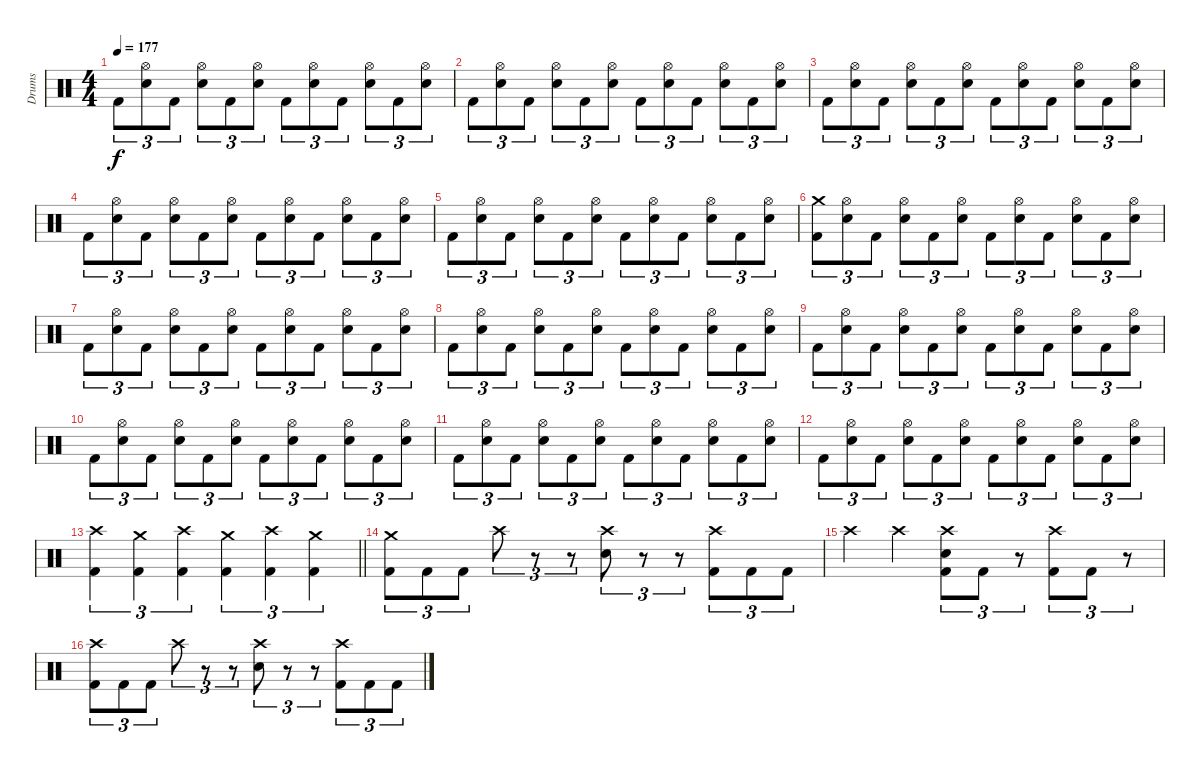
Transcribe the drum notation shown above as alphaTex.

\track ("Drums" "Drums") {instrument percussion}
\staff {score}
\articulation defaults
\ts (4 4)
\tempo 177
\clef neutral
\ks c "Kick (hit) 2".8{tu (3 2) dy f}
("Hi-Hat (open)" "Electric Snare (hit)").8{tu (3 2)} "Kick (hit) 2".8{tu (3 2)} ("Hi-Hat (open)" "Electric Snare (hit)").8{tu (3 2)} "Kick (hit) 2".8{tu (3 2)} ("Hi-Hat (open)" "Electric Snare (hit)").8{tu (3 2)} "Kick (hit) 2".8{tu (3 2)} ("Hi-Hat (open)" "Electric Snare (hit)").8{tu (3 2)} "Kick (hit) 2".8{tu (3 2)} ("Hi-Hat (open)" "Electric Snare (hit)").8{tu (3 2)} "Kick (hit) 2".8{tu (3 2)} ("Hi-Hat (open)" "Electric Snare (hit)").8{tu (3 2)} |
"Kick (hit) 2".8{tu (3 2)} ("Hi-Hat (open)" "Electric Snare (hit)").8{tu (3 2)} "Kick (hit) 2".8{tu (3 2)} ("Hi-Hat (open)" "Electric Snare (hit)").8{tu (3 2)} "Kick (hit) 2".8{tu (3 2)} ("Hi-Hat (open)" "Electric Snare (hit)").8{tu (3 2)} "Kick (hit) 2".8{tu (3 2)} ("Hi-Hat (open)" "Electric Snare (hit)").8{tu (3 2)} "Kick (hit) 2".8{tu (3 2)} ("Hi-Hat (open)" "Electric Snare (hit)").8{tu (3 2)} "Kick (hit) 2".8{tu (3 2)} ("Hi-Hat (open)" "Electric Snare (hit)").8{tu (3 2)} |
"Kick (hit) 2".8{tu (3 2)} ("Hi-Hat (open)" "Electric Snare (hit)").8{tu (3 2)} "Kick (hit) 2".8{tu (3 2)} ("Hi-Hat (open)" "Electric Snare (hit)").8{tu (3 2)} "Kick (hit) 2".8{tu (3 2)} ("Hi-Hat (open)" "Electric Snare (hit)").8{tu (3 2)} "Kick (hit) 2".8{tu (3 2)} ("Hi-Hat (open)" "Electric Snare (hit)").8{tu (3 2)} "Kick (hit) 2".8{tu (3 2)} ("Hi-Hat (open)" "Electric Snare (hit)").8{tu (3 2)} "Kick (hit) 2".8{tu (3 2)} ("Hi-Hat (open)" "Electric Snare (hit)").8{tu (3 2)} |
"Kick (hit) 2".8{tu (3 2)} ("Hi-Hat (open)" "Electric Snare (hit)").8{tu (3 2)} "Kick (hit) 2".8{tu (3 2)} ("Hi-Hat (open)" "Electric Snare (hit)").8{tu (3 2)} "Kick (hit) 2".8{tu (3 2)} ("Hi-Hat (open)" "Electric Snare (hit)").8{tu (3 2)} "Kick (hit) 2".8{tu (3 2)} ("Hi-Hat (open)" "Electric Snare (hit)").8{tu (3 2)} "Kick (hit) 2".8{tu (3 2)} ("Hi-Hat (open)" "Electric Snare (hit)").8{tu (3 2)} "Kick (hit) 2".8{tu (3 2)} ("Hi-Hat (open)" "Electric Snare (hit)").8{tu (3 2)} |
"Kick (hit) 2".8{tu (3 2)} ("Hi-Hat (open)" "Electric Snare (hit)").8{tu (3 2)} "Kick (hit) 2".8{tu (3 2)} ("Hi-Hat (open)" "Electric Snare (hit)").8{tu (3 2)} "Kick (hit) 2".8{tu (3 2)} ("Hi-Hat (open)" "Electric Snare (hit)").8{tu (3 2)} "Kick (hit) 2".8{tu (3 2)} ("Hi-Hat (open)" "Electric Snare (hit)").8{tu (3 2)} "Kick (hit) 2".8{tu (3 2)} ("Hi-Hat (open)" "Electric Snare (hit)").8{tu (3 2)} "Kick (hit) 2".8{tu (3 2)} ("Hi-Hat (open)" "Electric Snare (hit)").8{tu (3 2)} |
("Crash medium (hit)" "Kick (hit) 2").8{tu (3 2)} ("Hi-Hat (open)" "Electric Snare (hit)").8{tu (3 2)} "Kick (hit) 2".8{tu (3 2)} ("Hi-Hat (open)" "Electric Snare (hit)").8{tu (3 2)} "Kick (hit) 2".8{tu (3 2)} ("Hi-Hat (open)" "Electric Snare (hit)").8{tu (3 2)} "Kick (hit) 2".8{tu (3 2)} ("Hi-Hat (open)" "Electric Snare (hit)").8{tu (3 2)} "Kick (hit) 2".8{tu (3 2)} ("Hi-Hat (open)" "Electric Snare (hit)").8{tu (3 2)} "Kick (hit) 2".8{tu (3 2)} ("Hi-Hat (open)" "Electric Snare (hit)").8{tu (3 2)} |
"Kick (hit) 2".8{tu (3 2)} ("Hi-Hat (open)" "Electric Snare (hit)").8{tu (3 2)} "Kick (hit) 2".8{tu (3 2)} ("Hi-Hat (open)" "Electric Snare (hit)").8{tu (3 2)} "Kick (hit) 2".8{tu (3 2)} ("Hi-Hat (open)" "Electric Snare (hit)").8{tu (3 2)} "Kick (hit) 2".8{tu (3 2)} ("Hi-Hat (open)" "Electric Snare (hit)").8{tu (3 2)} "Kick (hit) 2".8{tu (3 2)} ("Hi-Hat (open)" "Electric Snare (hit)").8{tu (3 2)} "Kick (hit) 2".8{tu (3 2)} ("Hi-Hat (open)" "Electric Snare (hit)").8{tu (3 2)} |
"Kick (hit) 2".8{tu (3 2)} ("Hi-Hat (open)" "Electric Snare (hit)").8{tu (3 2)} "Kick (hit) 2".8{tu (3 2)} ("Hi-Hat (open)" "Electric Snare (hit)").8{tu (3 2)} "Kick (hit) 2".8{tu (3 2)} ("Hi-Hat (open)" "Electric Snare (hit)").8{tu (3 2)} "Kick (hit) 2".8{tu (3 2)} ("Hi-Hat (open)" "Electric Snare (hit)").8{tu (3 2)} "Kick (hit) 2".8{tu (3 2)} ("Hi-Hat (open)" "Electric Snare (hit)").8{tu (3 2)} "Kick (hit) 2".8{tu (3 2)} ("Hi-Hat (open)" "Electric Snare (hit)").8{tu (3 2)} |
"Kick (hit) 2".8{tu (3 2)} ("Hi-Hat (open)" "Electric Snare (hit)").8{tu (3 2)} "Kick (hit) 2".8{tu (3 2)} ("Hi-Hat (open)" "Electric Snare (hit)").8{tu (3 2)} "Kick (hit) 2".8{tu (3 2)} ("Hi-Hat (open)" "Electric Snare (hit)").8{tu (3 2)} "Kick (hit) 2".8{tu (3 2)} ("Hi-Hat (open)" "Electric Snare (hit)").8{tu (3 2)} "Kick (hit) 2".8{tu (3 2)} ("Hi-Hat (open)" "Electric Snare (hit)").8{tu (3 2)} "Kick (hit) 2".8{tu (3 2)} ("Hi-Hat (open)" "Electric Snare (hit)").8{tu (3 2)} |
"Kick (hit) 2".8{tu (3 2)} ("Hi-Hat (open)" "Electric Snare (hit)").8{tu (3 2)} "Kick (hit) 2".8{tu (3 2)} ("Hi-Hat (open)" "Electric Snare (hit)").8{tu (3 2)} "Kick (hit) 2".8{tu (3 2)} ("Hi-Hat (open)" "Electric Snare (hit)").8{tu (3 2)} "Kick (hit) 2".8{tu (3 2)} ("Hi-Hat (open)" "Electric Snare (hit)").8{tu (3 2)} "Kick (hit) 2".8{tu (3 2)} ("Hi-Hat (open)" "Electric Snare (hit)").8{tu (3 2)} "Kick (hit) 2".8{tu (3 2)} ("Hi-Hat (open)" "Electric Snare (hit)").8{tu (3 2)} |
"Kick (hit) 2".8{tu (3 2)} ("Hi-Hat (open)" "Electric Snare (hit)").8{tu (3 2)} "Kick (hit) 2".8{tu (3 2)} ("Hi-Hat (open)" "Electric Snare (hit)").8{tu (3 2)} "Kick (hit) 2".8{tu (3 2)} ("Hi-Hat (open)" "Electric Snare (hit)").8{tu (3 2)} "Kick (hit) 2".8{tu (3 2)} ("Hi-Hat (open)" "Electric Snare (hit)").8{tu (3 2)} "Kick (hit) 2".8{tu (3 2)} ("Hi-Hat (open)" "Electric Snare (hit)").8{tu (3 2)} "Kick (hit) 2".8{tu (3 2)} ("Hi-Hat (open)" "Electric Snare (hit)").8{tu (3 2)} |
"Kick (hit) 2".8{tu (3 2)} ("Hi-Hat (open)" "Electric Snare (hit)").8{tu (3 2)} "Kick (hit) 2".8{tu (3 2)} ("Hi-Hat (open)" "Electric Snare (hit)").8{tu (3 2)} "Kick (hit) 2".8{tu (3 2)} ("Hi-Hat (open)" "Electric Snare (hit)").8{tu (3 2)} "Kick (hit) 2".8{tu (3 2)} ("Hi-Hat (open)" "Electric Snare (hit)").8{tu (3 2)} "Kick (hit) 2".8{tu (3 2)} ("Hi-Hat (open)" "Electric Snare (hit)").8{tu (3 2)} "Kick (hit) 2".8{tu (3 2)} ("Hi-Hat (open)" "Electric Snare (hit)").8{tu (3 2)} |
\barLineRight lightlight
("Crash high (hit)" "Kick (hit) 2").4{tu (3 2)} ("Crash medium (hit)" "Kick (hit) 2").4{tu (3 2)} ("Crash high (hit)" "Kick (hit) 2").4{tu (3 2)} ("Crash medium (hit)" "Kick (hit) 2").4{tu (3 2)} ("Crash high (hit)" "Kick (hit) 2").4{tu (3 2)} ("Crash medium (hit)" "Kick (hit) 2").4{tu (3 2)} |
("Crash medium (hit)" "Kick (hit) 2").8{tu (3 2)} "Kick (hit) 2".8{tu (3 2)} "Kick (hit) 2".8{tu (3 2)} "Crash high (hit)".8{tu (3 2)} r.8{tu (3 2)} r.8{tu (3 2)} ("Crash high (hit)" "Electric Snare (hit)").8{tu (3 2)} r.8{tu (3 2)} r.8{tu (3 2)} ("Crash high (hit)" "Kick (hit) 2").8{tu (3 2)} "Kick (hit) 2".8{tu (3 2)} "Kick (hit) 2".8{tu (3 2)} |
"Crash high (hit)".4 "Crash high (hit)".4 ("Crash high (hit)" "Electric Snare (hit)" "Kick (hit) 2").8{tu (3 2)} "Kick (hit) 2".8{tu (3 2)} r.8{tu (3 2)} ("Crash high (hit)" "Kick (hit) 2").8{tu (3 2)} "Kick (hit) 2".8{tu (3 2)} r.8{tu (3 2)} |
("Crash high (hit)" "Kick (hit) 2").8{tu (3 2)} "Kick (hit) 2".8{tu (3 2)} "Kick (hit) 2".8{tu (3 2)} "Crash high (hit)".8{tu (3 2)} r.8{tu (3 2)} r.8{tu (3 2)} ("Crash high (hit)" "Electric Snare (hit)").8{tu (3 2)} r.8{tu (3 2)} r.8{tu (3 2)} ("Crash high (hit)" "Kick (hit) 2").8{tu (3 2)} "Kick (hit) 2".8{tu (3 2)} "Kick (hit) 2".8{tu (3 2)}
